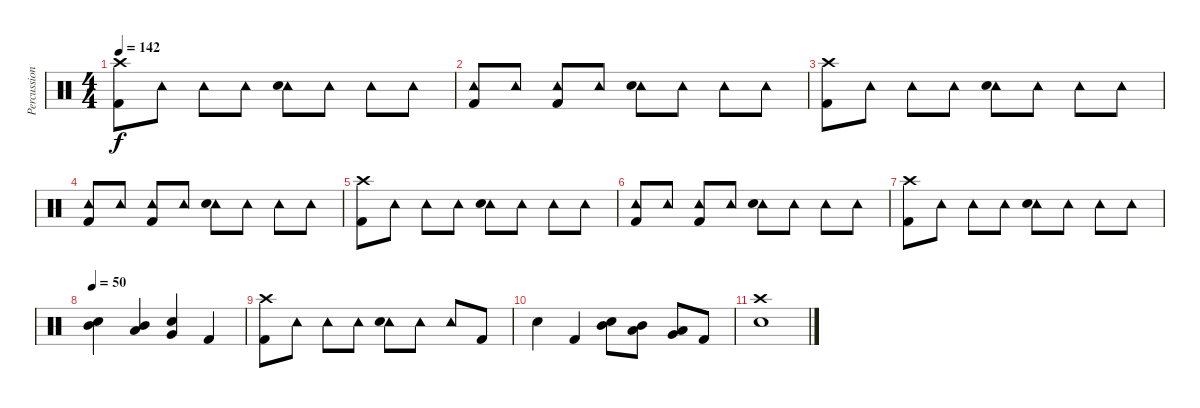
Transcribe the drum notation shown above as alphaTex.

\track ("Percussion" "Percussion") {instrument percussion}
\staff {score}
\articulation defaults
\ts (4 4)
\tempo 142
\clef neutral
\ks c
("Crash high (hit)" "Kick (hit) 2").8{dy f} "Tambourine (hit)".8 "Tambourine (hit)".8 "Tambourine (hit)".8 ("Tambourine (hit)" "Snare (hit) 2").8 "Tambourine (hit)".8 "Tambourine (hit)".8 "Tambourine (hit)".8 |
("Tambourine (hit)" "Kick (hit) 2").8 "Tambourine (hit)".8 ("Tambourine (hit)" "Kick (hit) 2").8 "Tambourine (hit)".8 ("Tambourine (hit)" "Snare (hit) 2").8 "Tambourine (hit)".8 "Tambourine (hit)".8 "Tambourine (hit)".8 |
("Crash high (hit)" "Kick (hit) 2").8 "Tambourine (hit)".8 "Tambourine (hit)".8 "Tambourine (hit)".8 ("Tambourine (hit)" "Snare (hit) 2").8 "Tambourine (hit)".8 "Tambourine (hit)".8 "Tambourine (hit)".8 |
("Tambourine (hit)" "Kick (hit) 2").8 "Tambourine (hit)".8 ("Tambourine (hit)" "Kick (hit) 2").8 "Tambourine (hit)".8 ("Tambourine (hit)" "Snare (hit) 2").8 "Tambourine (hit)".8 "Tambourine (hit)".8 "Tambourine (hit)".8 |
("Crash high (hit)" "Kick (hit) 2").8 "Tambourine (hit)".8 "Tambourine (hit)".8 "Tambourine (hit)".8 ("Tambourine (hit)" "Snare (hit) 2").8 "Tambourine (hit)".8 "Tambourine (hit)".8 "Tambourine (hit)".8 |
("Tambourine (hit)" "Kick (hit) 2").8 "Tambourine (hit)".8 ("Tambourine (hit)" "Kick (hit) 2").8 "Tambourine (hit)".8 ("Tambourine (hit)" "Snare (hit) 2").8 "Tambourine (hit)".8 "Tambourine (hit)".8 "Tambourine (hit)".8 |
("Crash high (hit)" "Kick (hit) 2").8 "Tambourine (hit)".8 "Tambourine (hit)".8 "Tambourine (hit)".8 ("Tambourine (hit)" "Snare (hit) 2").8 "Tambourine (hit)".8 "Tambourine (hit)".8 "Tambourine (hit)".8 |
\tempo 50
("Mid Tom (hit)" "Snare (hit) 2").4 ("Low Tom (hit)" "Mid Tom (hit)").4 ("Very Low Tom (hit)" "Snare (hit) 2").4 "Kick (hit) 2".4 |
("Crash high (hit)" "Kick (hit) 2").8 "Tambourine (hit)".8 "Tambourine (hit)".8 "Tambourine (hit)".8 ("Tambourine (hit)" "Snare (hit) 2").8 "Tambourine (hit)".8 "Tambourine (hit)".8 "Kick (hit) 2".8 |
"Snare (hit) 2".4 "Kick (hit) 2".4 ("Mid Tom (hit)" "Snare (hit) 2").8 ("Low Tom (hit)" "Mid Tom (hit)").8 ("Very Low Tom (hit)" "Low Tom (hit)").8 "Kick (hit) 2".8 |
("Crash high (hit)" "Snare (hit) 2").1
